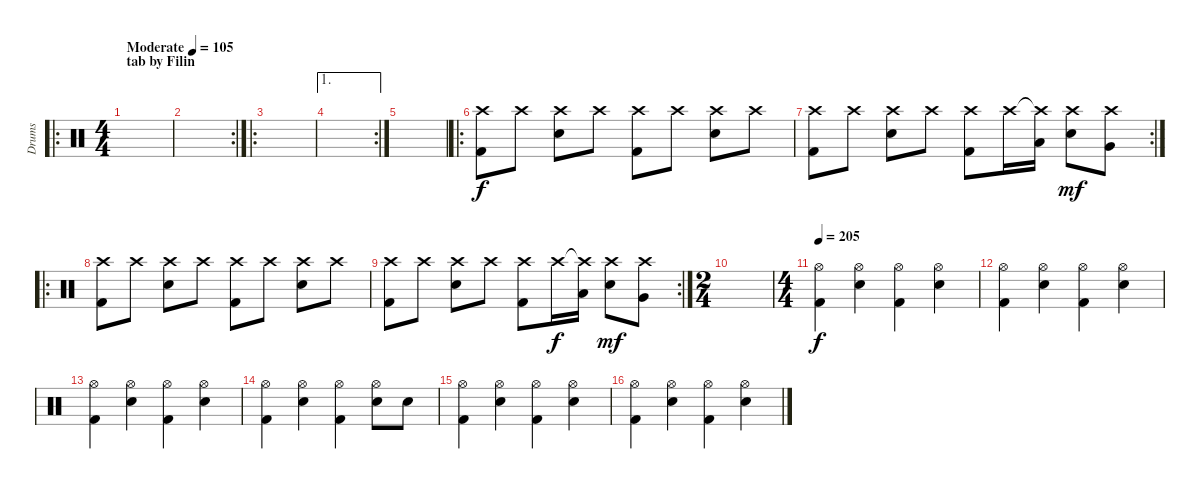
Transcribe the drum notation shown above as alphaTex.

\track ("Drums" "Drums") {instrument percussion}
\staff {score}
\articulation defaults
\ro
\ts (4 4)
\section ("" "tab by Filin ")
\tempo (105 "Moderate")
\clef neutral
\ks c
|
\rc 2
|
\ro
|
\ae 1
\rc 2
|
|
\ro
("Crash high (hit)" "Kick (hit) 2").8 "Crash high (hit)".8 ("Crash high (hit)" "Electric Snare (hit)").8 "Crash high (hit)".8 ("Crash high (hit)" "Kick (hit) 2").8 "Crash high (hit)".8 ("Crash high (hit)" "Electric Snare (hit)").8 "Crash high (hit)".8 |
\rc 2
("Crash high (hit)" "Kick (hit) 2").8 "Crash high (hit)".8 ("Crash high (hit)" "Electric Snare (hit)").8 "Crash high (hit)".8 ("Crash high (hit)" "Kick (hit) 2").8 "Crash high (hit)".16{dy f} ("Crash high (hit)"{t} "Low Tom (hit)").16 ("Crash high (hit)" "Electric Snare (hit)").8{dy mf} ("Crash high (hit)" "Very Low Tom (hit)").8 |
\ro
("Crash high (hit)" "Kick (hit) 2").8 "Crash high (hit)".8 ("Crash high (hit)" "Electric Snare (hit)").8 "Crash high (hit)".8 ("Crash high (hit)" "Kick (hit) 2").8 "Crash high (hit)".8 ("Crash high (hit)" "Electric Snare (hit)").8 "Crash high (hit)".8 |
\rc 2
("Crash high (hit)" "Kick (hit) 2").8 "Crash high (hit)".8 ("Crash high (hit)" "Electric Snare (hit)").8 "Crash high (hit)".8 ("Crash high (hit)" "Kick (hit) 2").8 "Crash high (hit)".16{dy f} ("Crash high (hit)"{t} "Low Tom (hit)").16 ("Crash high (hit)" "Electric Snare (hit)").8{dy mf} ("Crash high (hit)" "Very Low Tom (hit)").8 |
\ts (2 4)
|
\ts (4 4)
\tempo 205
("Hi-Hat (open)" "Kick (hit) 2").4{dy f} ("Hi-Hat (open)" "Electric Snare (hit)").4 ("Hi-Hat (open)" "Kick (hit) 2").4 ("Hi-Hat (open)" "Electric Snare (hit)").4 |
("Hi-Hat (open)" "Kick (hit) 2").4 ("Hi-Hat (open)" "Electric Snare (hit)").4 ("Hi-Hat (open)" "Kick (hit) 2").4 ("Hi-Hat (open)" "Electric Snare (hit)").4 |
("Hi-Hat (open)" "Kick (hit) 2").4 ("Hi-Hat (open)" "Electric Snare (hit)").4 ("Hi-Hat (open)" "Kick (hit) 2").4 ("Hi-Hat (open)" "Electric Snare (hit)").4 |
("Hi-Hat (open)" "Kick (hit) 2").4 ("Hi-Hat (open)" "Electric Snare (hit)").4 ("Hi-Hat (open)" "Kick (hit) 2").4 ("Hi-Hat (open)" "Electric Snare (hit)").8 "Electric Snare (hit)".8 |
("Hi-Hat (open)" "Kick (hit) 2").4 ("Hi-Hat (open)" "Electric Snare (hit)").4 ("Hi-Hat (open)" "Kick (hit) 2").4 ("Hi-Hat (open)" "Electric Snare (hit)").4 |
("Hi-Hat (open)" "Kick (hit) 2").4 ("Hi-Hat (open)" "Electric Snare (hit)").4 ("Hi-Hat (open)" "Kick (hit) 2").4 ("Hi-Hat (open)" "Electric Snare (hit)").4
